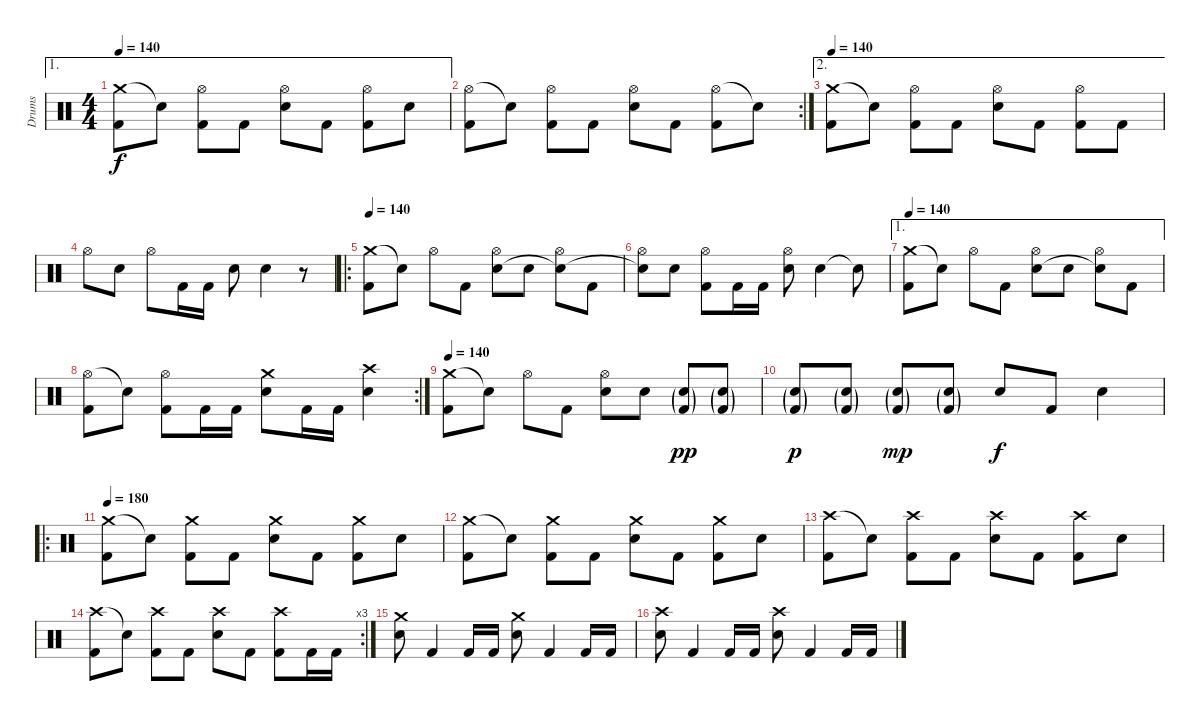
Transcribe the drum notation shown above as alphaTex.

\track ("Drums" "Drums") {instrument percussion}
\staff {score}
\articulation defaults
\ae 1
\ts (4 4)
\tempo 140
\clef neutral
\ks c
("Crash medium (hit)" "Kick (hit) 2").8{dy f} "Snare (hit)"{t}.8 ("Hi-Hat (open)" "Kick (hit) 2").8 "Kick (hit) 2".8 ("Hi-Hat (open)" "Electric Snare (hit)").8 "Kick (hit) 2".8 ("Hi-Hat (open)" "Kick (hit) 2").8 "Electric Snare (hit)".8 |
\rc 2
("Hi-Hat (open)" "Kick (hit) 2").8 "Snare (hit)"{t}.8 ("Hi-Hat (open)" "Kick (hit) 2").8 "Kick (hit) 2".8 ("Hi-Hat (open)" "Electric Snare (hit)").8 "Kick (hit) 2".8 ("Hi-Hat (open)" "Kick (hit) 2").8 "Snare (hit)"{t}.8 |
\ae 2
\tempo 140
("Crash medium (hit)" "Kick (hit) 2").8 "Snare (hit)"{t}.8 ("Hi-Hat (open)" "Kick (hit) 2").8 "Kick (hit) 2".8 ("Hi-Hat (open)" "Electric Snare (hit)").8 "Kick (hit) 2".8 ("Hi-Hat (open)" "Kick (hit) 2").8 "Kick (hit) 2".8 |
"Hi-Hat (open)".8 "Electric Snare (hit)".8 "Hi-Hat (open)".8 "Kick (hit) 2".16 "Kick (hit) 2".16 "Electric Snare (hit)".8 "Electric Snare (hit)".4 r.8 |
\ro
\tempo 140
("Crash medium (hit)" "Kick (hit) 2").8 "Snare (hit)"{t}.8 "Hi-Hat (open)".8 "Kick (hit) 2".8 ("Hi-Hat (open)" "Electric Snare (hit)").8 "Electric Snare (hit)".8 ("Hi-Hat (open)" "Electric Snare (hit)"{t}).8 "Kick (hit) 2".8 |
("Hi-Hat (open)" "Electric Snare (hit)"{t}).8 "Electric Snare (hit)".8 ("Hi-Hat (open)" "Kick (hit) 2").8 "Kick (hit) 2".16 "Kick (hit) 2".16 ("Hi-Hat (open)" "Electric Snare (hit)").8 "Electric Snare (hit)".4 "Snare (hit)"{t}.8 |
\ae 1
\tempo 140
("Crash medium (hit)" "Kick (hit) 2").8 "Snare (hit)"{t}.8 "Hi-Hat (open)".8 "Kick (hit) 2".8 ("Hi-Hat (open)" "Electric Snare (hit)").8 "Electric Snare (hit)".8 ("Hi-Hat (open)" "Electric Snare (hit)"{t}).8 "Kick (hit) 2".8 |
\rc 2
("Hi-Hat (open)" "Kick (hit) 2").8 "Snare (hit)"{t}.8 ("Hi-Hat (open)" "Kick (hit) 2").8 "Kick (hit) 2".16 "Kick (hit) 2".16 ("Crash medium (hit)" "Electric Snare (hit)").8 "Kick (hit) 2".16 "Kick (hit) 2".16 ("Crash high (hit)" "Electric Snare (hit)").4 |
\tempo 140
("Crash medium (hit)" "Kick (hit) 2").8 "Snare (hit)"{t}.8 "Hi-Hat (open)".8 "Kick (hit) 2".8 ("Hi-Hat (open)" "Electric Snare (hit)").8 "Electric Snare (hit)".8 ("Electric Snare (hit)"{g} "Kick (hit) 2"{g}).8{dy pp} ("Electric Snare (hit)"{g} "Kick (hit) 2"{g}).8 |
("Electric Snare (hit)"{g} "Kick (hit) 2"{g}).8{dy p} ("Electric Snare (hit)"{g} "Kick (hit) 2"{g}).8 ("Electric Snare (hit)"{g} "Kick (hit) 2"{g}).8{dy mp} ("Electric Snare (hit)"{g} "Kick (hit) 2"{g}).8 "Electric Snare (hit)".8{dy f} "Kick (hit) 2".8 "Electric Snare (hit)".4 |
\ro
\tempo 180
("Crash medium (hit)" "Kick (hit) 2").8 "Snare (hit)"{t}.8 ("Crash medium (hit)" "Kick (hit) 2").8 "Kick (hit) 2".8 ("Crash medium (hit)" "Electric Snare (hit)").8 "Kick (hit) 2".8 ("Crash medium (hit)" "Kick (hit) 2").8 "Electric Snare (hit)".8 |
("Crash medium (hit)" "Kick (hit) 2").8 "Snare (hit)"{t}.8 ("Crash medium (hit)" "Kick (hit) 2").8 "Kick (hit) 2".8 ("Crash medium (hit)" "Electric Snare (hit)").8 "Kick (hit) 2".8 ("Crash medium (hit)" "Kick (hit) 2").8 "Electric Snare (hit)".8 |
("Crash high (hit)" "Kick (hit) 2").8 "Snare (hit)"{t}.8 ("Crash high (hit)" "Kick (hit) 2").8 "Kick (hit) 2".8 ("Crash high (hit)" "Electric Snare (hit)").8 "Kick (hit) 2".8 ("Crash high (hit)" "Kick (hit) 2").8 "Electric Snare (hit)".8 |
\rc 3
("Crash high (hit)" "Kick (hit) 2").8 "Snare (hit)"{t}.8 ("Crash high (hit)" "Kick (hit) 2").8 "Kick (hit) 2".8 ("Crash high (hit)" "Electric Snare (hit)").8 "Kick (hit) 2".8 ("Crash high (hit)" "Kick (hit) 2").8 "Kick (hit) 2".16 "Kick (hit) 2".16 |
("Crash medium (hit)" "Electric Snare (hit)").8 "Kick (hit) 2".4 "Kick (hit) 2".16 "Kick (hit) 2".16 ("Crash medium (hit)" "Electric Snare (hit)").8 "Kick (hit) 2".4 "Kick (hit) 2".16 "Kick (hit) 2".16 |
("Crash high (hit)" "Electric Snare (hit)").8 "Kick (hit) 2".4 "Kick (hit) 2".16 "Kick (hit) 2".16 ("Crash high (hit)" "Electric Snare (hit)").8 "Kick (hit) 2".4 "Kick (hit) 2".16 "Kick (hit) 2".16
